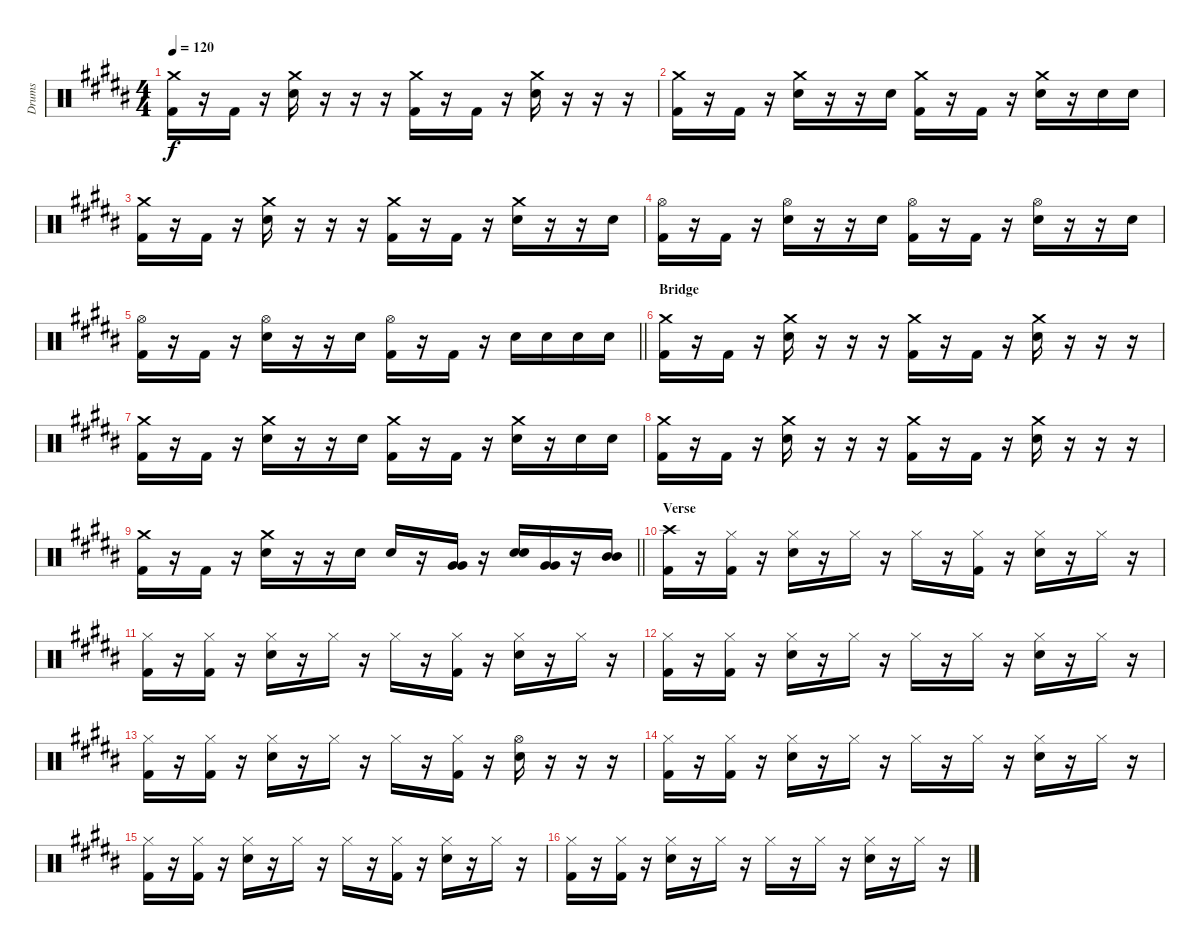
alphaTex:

\track ("Drums" "Drums") {instrument percussion}
\staff {score}
\articulation defaults
\ts (4 4)
\tempo 120
\clef neutral
\ks b
("Crash medium (hit)" "Kick (hit) 2").16{dy f} r.16 "Kick (hit) 2".16 r.16 ("Crash medium (hit)" "Snare (hit) 2").16 r.16 r.16 r.16 ("Crash medium (hit)" "Kick (hit) 2").16 r.16 "Kick (hit) 2".16 r.16 ("Crash medium (hit)" "Snare (hit) 2").16 r.16 r.16 r.16 |
("Crash medium (hit)" "Kick (hit) 2").16 r.16 "Kick (hit) 2".16 r.16 ("Crash medium (hit)" "Snare (hit) 2").16 r.16 r.16 "Snare (hit) 2".16 ("Crash medium (hit)" "Kick (hit) 2").16 r.16 "Kick (hit) 2".16 r.16 ("Crash medium (hit)" "Snare (hit) 2").16 r.16 "Snare (hit) 2".16 "Snare (hit) 2".16 |
("Crash medium (hit)" "Kick (hit) 2").16 r.16 "Kick (hit) 2".16 r.16 ("Crash medium (hit)" "Snare (hit) 2").16 r.16 r.16 r.16 ("Crash medium (hit)" "Kick (hit) 2").16 r.16 "Kick (hit) 2".16 r.16 ("Crash medium (hit)" "Snare (hit) 2").16 r.16 r.16 "Snare (hit) 2".16 |
("Hi-Hat (open)" "Kick (hit) 2").16 r.16 "Kick (hit) 2".16 r.16 ("Hi-Hat (open)" "Snare (hit) 2").16 r.16 r.16 "Snare (hit) 2".16 ("Hi-Hat (open)" "Kick (hit) 2").16 r.16 "Kick (hit) 2".16 r.16 ("Hi-Hat (open)" "Snare (hit) 2").16 r.16 r.16 "Snare (hit) 2".16 |
\barLineRight lightlight
("Hi-Hat (open)" "Kick (hit) 2").16 r.16 "Kick (hit) 2".16 r.16 ("Hi-Hat (open)" "Snare (hit) 2").16 r.16 r.16 "Snare (hit) 2".16 ("Hi-Hat (open)" "Kick (hit) 2").16 r.16 "Kick (hit) 2".16 r.16 "Snare (hit) 2".16 "Snare (hit) 2".16 "Snare (hit) 2".16 "Snare (hit) 2".16 |
\section ("" "Bridge")
("Crash medium (hit)" "Kick (hit) 2").16 r.16 "Kick (hit) 2".16 r.16 ("Crash medium (hit)" "Snare (hit) 2").16 r.16 r.16 r.16 ("Crash medium (hit)" "Kick (hit) 2").16 r.16 "Kick (hit) 2".16 r.16 ("Crash medium (hit)" "Snare (hit) 2").16 r.16 r.16 r.16 |
("Crash medium (hit)" "Kick (hit) 2").16 r.16 "Kick (hit) 2".16 r.16 ("Crash medium (hit)" "Snare (hit) 2").16 r.16 r.16 "Snare (hit) 2".16 ("Crash medium (hit)" "Kick (hit) 2").16 r.16 "Kick (hit) 2".16 r.16 ("Crash medium (hit)" "Snare (hit) 2").16 r.16 "Snare (hit) 2".16 "Snare (hit) 2".16 |
("Crash medium (hit)" "Kick (hit) 2").16 r.16 "Kick (hit) 2".16 r.16 ("Crash medium (hit)" "Snare (hit) 2").16 r.16 r.16 r.16 ("Crash medium (hit)" "Kick (hit) 2").16 r.16 "Kick (hit) 2".16 r.16 ("Crash medium (hit)" "Snare (hit) 2").16 r.16 r.16 r.16 |
\barLineRight lightlight
("Crash medium (hit)" "Kick (hit) 2").16 r.16 "Kick (hit) 2".16 r.16 ("Crash medium (hit)" "Snare (hit) 2").16 r.16 r.16 "Snare (hit) 2".16 "Snare (hit) 2".16 r.16 ("Very Low Tom (hit)" "Very Low Tom (hit)").16 r.16 ("Snare (hit) 2" "Snare (hit) 2").16 ("Very Low Tom (hit)" "Very Low Tom (hit)").16 r.16 ("Mid Tom (hit)" "Mid Tom (hit)").16 |
\section ("" "Verse")
("Crash high (hit)" "Kick (hit) 2").16 r.16 ("Hi-Hat (closed)" "Kick (hit) 2").16 r.16 ("Hi-Hat (closed)" "Snare (hit) 2").16 r.16 "Hi-Hat (closed)".16 r.16 "Hi-Hat (closed)".16 r.16 ("Hi-Hat (closed)" "Kick (hit) 2").16 r.16 ("Hi-Hat (closed)" "Snare (hit) 2").16 r.16 "Hi-Hat (closed)".16 r.16 |
("Hi-Hat (closed)" "Kick (hit) 2").16 r.16 ("Hi-Hat (closed)" "Kick (hit) 2").16 r.16 ("Hi-Hat (closed)" "Snare (hit) 2").16 r.16 "Hi-Hat (closed)".16 r.16 "Hi-Hat (closed)".16 r.16 ("Hi-Hat (closed)" "Kick (hit) 2").16 r.16 ("Hi-Hat (closed)" "Snare (hit) 2").16 r.16 "Hi-Hat (closed)".16 r.16 |
("Hi-Hat (closed)" "Kick (hit) 2").16 r.16 ("Hi-Hat (closed)" "Kick (hit) 2").16 r.16 ("Hi-Hat (closed)" "Snare (hit) 2").16 r.16 "Hi-Hat (closed)".16 r.16 "Hi-Hat (closed)".16 r.16 "Hi-Hat (closed)".16 r.16 ("Hi-Hat (closed)" "Snare (hit) 2").16 r.16 "Hi-Hat (closed)".16 r.16 |
("Hi-Hat (closed)" "Kick (hit) 2").16 r.16 ("Hi-Hat (closed)" "Kick (hit) 2").16 r.16 ("Hi-Hat (closed)" "Snare (hit) 2").16 r.16 "Hi-Hat (closed)".16 r.16 "Hi-Hat (closed)".16 r.16 ("Hi-Hat (closed)" "Kick (hit) 2").16 r.16 ("Hi-Hat (open)" "Snare (hit) 2").16 r.16 r.16 r.16 |
("Hi-Hat (closed)" "Kick (hit) 2").16 r.16 ("Hi-Hat (closed)" "Kick (hit) 2").16 r.16 ("Hi-Hat (closed)" "Snare (hit) 2").16 r.16 "Hi-Hat (closed)".16 r.16 "Hi-Hat (closed)".16 r.16 "Hi-Hat (closed)".16 r.16 ("Hi-Hat (closed)" "Snare (hit) 2").16 r.16 "Hi-Hat (closed)".16 r.16 |
("Hi-Hat (closed)" "Kick (hit) 2").16 r.16 ("Hi-Hat (closed)" "Kick (hit) 2").16 r.16 ("Hi-Hat (closed)" "Snare (hit) 2").16 r.16 "Hi-Hat (closed)".16 r.16 "Hi-Hat (closed)".16 r.16 ("Hi-Hat (closed)" "Kick (hit) 2").16 r.16 ("Hi-Hat (closed)" "Snare (hit) 2").16 r.16 "Hi-Hat (closed)".16 r.16 |
("Hi-Hat (closed)" "Kick (hit) 2").16 r.16 ("Hi-Hat (closed)" "Kick (hit) 2").16 r.16 ("Hi-Hat (closed)" "Snare (hit) 2").16 r.16 "Hi-Hat (closed)".16 r.16 "Hi-Hat (closed)".16 r.16 "Hi-Hat (closed)".16 r.16 ("Hi-Hat (closed)" "Snare (hit) 2").16 r.16 "Hi-Hat (closed)".16 r.16
